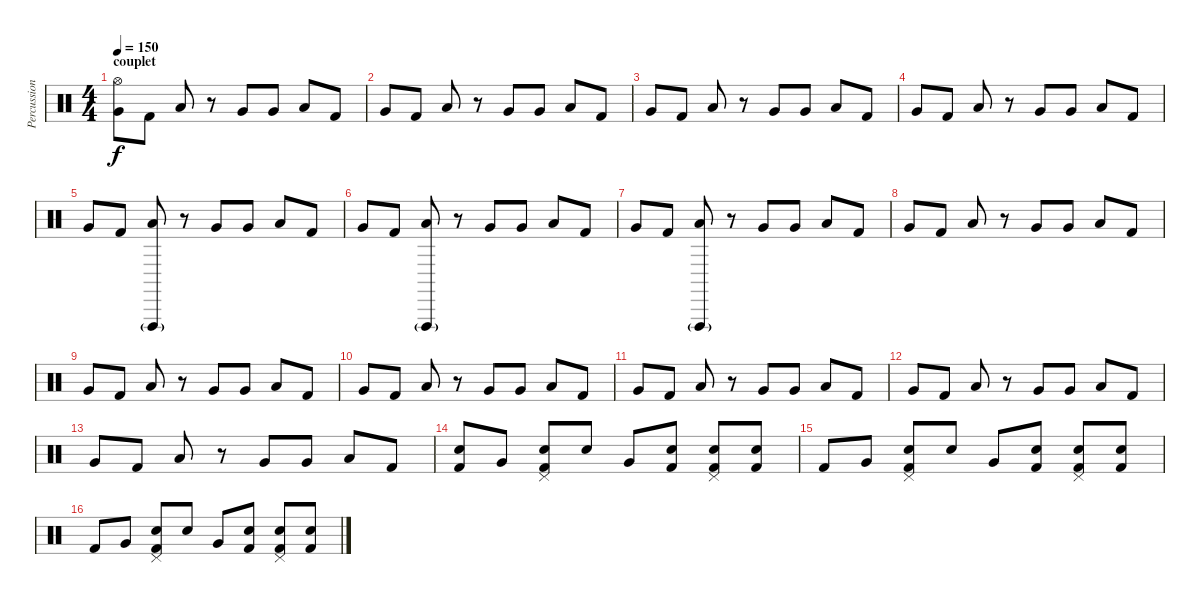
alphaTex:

\track ("Percussions" "Percussion") {instrument percussion}
\staff {score}
\articulation defaults
\ts (4 4)
\section ("" "couplet")
\tempo 150
\clef neutral
\ks c
("Hi-Hat (open)" "Very Low Tom (hit)").8{dy f} "Kick (hit) 2".8 "Low Tom (hit)".8 r.8 "Very Low Tom (hit)".8 "Very Low Tom (hit)".8 "Low Tom (hit)".8 "Kick (hit) 2".8 |
"Very Low Tom (hit)".8 "Kick (hit) 2".8 "Low Tom (hit)".8 r.8 "Very Low Tom (hit)".8 "Very Low Tom (hit)".8 "Low Tom (hit)".8 "Kick (hit) 2".8 |
"Very Low Tom (hit)".8 "Kick (hit) 2".8 "Low Tom (hit)".8 r.8 "Very Low Tom (hit)".8 "Very Low Tom (hit)".8 "Low Tom (hit)".8 "Kick (hit) 2".8 |
"Very Low Tom (hit)".8 "Kick (hit) 2".8 "Low Tom (hit)".8 r.8 "Very Low Tom (hit)".8 "Very Low Tom (hit)".8 "Low Tom (hit)".8 "Kick (hit) 2".8 |
"Very Low Tom (hit)".8 "Kick (hit) 2".8 ("Vibraslap (hit)"{g} "Low Tom (hit)").8 r.8 "Very Low Tom (hit)".8 "Very Low Tom (hit)".8 "Low Tom (hit)".8 "Kick (hit) 2".8 |
"Very Low Tom (hit)".8 "Kick (hit) 2".8 ("Vibraslap (hit)"{g} "Low Tom (hit)").8 r.8 "Very Low Tom (hit)".8 "Very Low Tom (hit)".8 "Low Tom (hit)".8 "Kick (hit) 2".8 |
"Very Low Tom (hit)".8 "Kick (hit) 2".8 ("Vibraslap (hit)"{g} "Low Tom (hit)").8 r.8 "Very Low Tom (hit)".8 "Very Low Tom (hit)".8 "Low Tom (hit)".8 "Kick (hit) 2".8 |
"Very Low Tom (hit)".8 "Kick (hit) 2".8 "Low Tom (hit)".8 r.8 "Very Low Tom (hit)".8 "Very Low Tom (hit)".8 "Low Tom (hit)".8 "Kick (hit) 2".8 |
"Very Low Tom (hit)".8 "Kick (hit) 2".8 "Low Tom (hit)".8 r.8 "Very Low Tom (hit)".8 "Very Low Tom (hit)".8 "Low Tom (hit)".8 "Kick (hit) 2".8 |
"Very Low Tom (hit)".8 "Kick (hit) 2".8 "Low Tom (hit)".8 r.8 "Very Low Tom (hit)".8 "Very Low Tom (hit)".8 "Low Tom (hit)".8 "Kick (hit) 2".8 |
"Very Low Tom (hit)".8 "Kick (hit) 2".8 "Low Tom (hit)".8 r.8 "Very Low Tom (hit)".8 "Very Low Tom (hit)".8 "Low Tom (hit)".8 "Kick (hit) 2".8 |
"Very Low Tom (hit)".8 "Kick (hit) 2".8 "Low Tom (hit)".8 r.8 "Very Low Tom (hit)".8 "Very Low Tom (hit)".8 "Low Tom (hit)".8 "Kick (hit) 2".8 |
"Very Low Tom (hit)".8 "Kick (hit) 2".8 "Low Tom (hit)".8 r.8 "Very Low Tom (hit)".8 "Very Low Tom (hit)".8 "Low Tom (hit)".8 "Kick (hit) 2".8 |
("Electric Snare (hit)" "Kick (hit) 2").8 "Very Low Tom (hit)".8 ("Electric Snare (hit)" "Pedal Hi-Hat (hit)" "Kick (hit) 2").8 "Electric Snare (hit)".8 "Very Low Tom (hit)".8 ("Electric Snare (hit)" "Kick (hit) 2").8 ("Electric Snare (hit)" "Pedal Hi-Hat (hit)" "Kick (hit) 2").8 ("Electric Snare (hit)" "Kick (hit) 2").8 |
"Kick (hit) 2".8 "Very Low Tom (hit)".8 ("Electric Snare (hit)" "Pedal Hi-Hat (hit)" "Kick (hit) 2").8 "Electric Snare (hit)".8 "Very Low Tom (hit)".8 ("Electric Snare (hit)" "Kick (hit) 2").8 ("Electric Snare (hit)" "Pedal Hi-Hat (hit)" "Kick (hit) 2").8 ("Electric Snare (hit)" "Kick (hit) 2").8 |
"Kick (hit) 2".8 "Very Low Tom (hit)".8 ("Electric Snare (hit)" "Pedal Hi-Hat (hit)" "Kick (hit) 2").8 "Electric Snare (hit)".8 "Very Low Tom (hit)".8 ("Electric Snare (hit)" "Kick (hit) 2").8 ("Electric Snare (hit)" "Pedal Hi-Hat (hit)" "Kick (hit) 2").8 ("Electric Snare (hit)" "Kick (hit) 2").8
